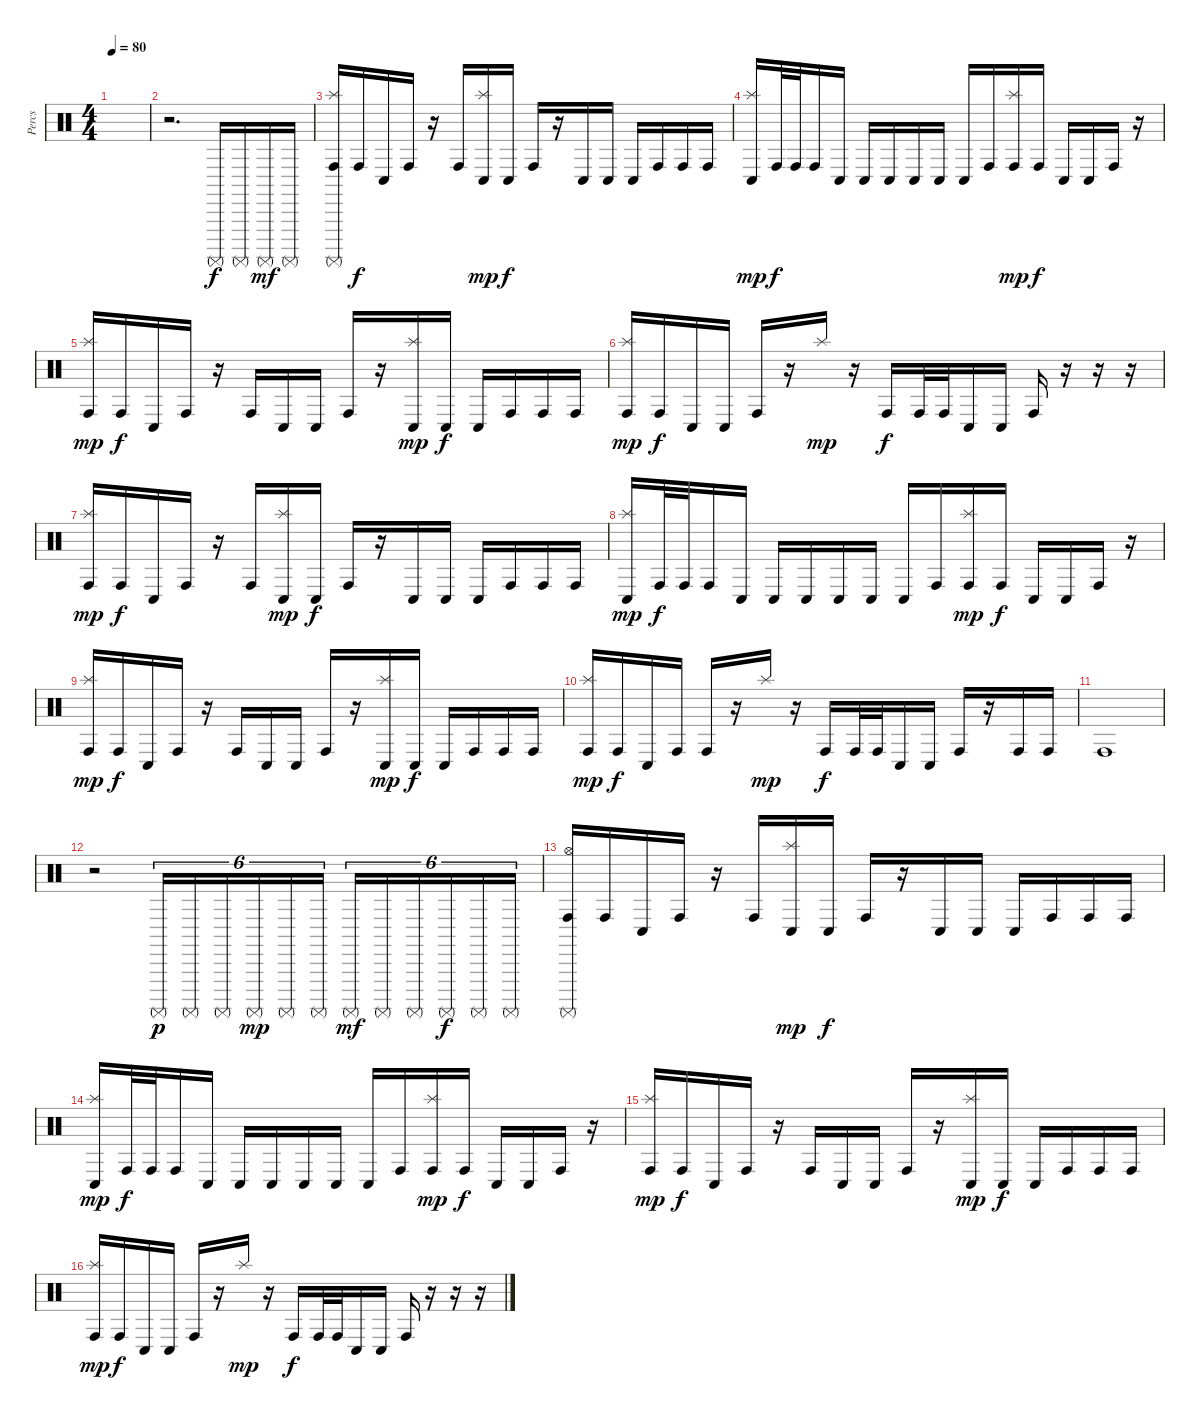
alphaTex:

\track ("Percs" "Percs") {instrument percussion}
\staff {score}
\articulation defaults
\ts (4 4)
\tempo 80
\clef neutral
\ks c
|
r.2{d} "Surdo (mute)".16 "Surdo (mute)".16 "Surdo (mute)".16{dy mf} "Surdo (mute)".16 |
("Splash (hit)" "Conga high (hit)" "Surdo (mute)").16 "Conga high (hit)".16{dy f} "Conga low (hit)".16 "Conga high (hit)".16 r.16 "Conga high (hit)".16 ("Splash (hit)" "Conga low (hit)").16{dy mp} "Conga low (hit)".16{dy f} "Conga high (hit)".16 r.16 "Conga low (hit)".16 "Conga low (hit)".16 "Conga low (hit)".16 "Conga high (hit)".16 "Conga high (hit)".16 "Conga high (hit)".16 |
("Splash (hit)" "Conga low (hit)").16{dy mp} "Conga high (hit)".32{dy f} "Conga high (hit)".32 "Conga high (hit)".16 "Conga low (hit)".16 "Conga low (hit)".16 "Conga low (hit)".16 "Conga low (hit)".16 "Conga low (hit)".16 "Conga low (hit)".16 "Conga high (hit)".16 ("Splash (hit)" "Conga high (hit)").16{dy mp} "Conga high (hit)".16{dy f} "Conga low (hit)".16 "Conga low (hit)".16 "Conga high (hit)".16 r.16 |
("Splash (hit)" "Conga high (hit)").16{dy mp} "Conga high (hit)".16{dy f} "Conga low (hit)".16 "Conga high (hit)".16 r.16 "Conga high (hit)".16 "Conga low (hit)".16 "Conga low (hit)".16 "Conga high (hit)".16 r.16 ("Splash (hit)" "Conga low (hit)").16{dy mp} "Conga low (hit)".16{dy f} "Conga low (hit)".16 "Conga high (hit)".16 "Conga high (hit)".16 "Conga high (hit)".16 |
("Splash (hit)" "Conga high (hit)").16{dy mp} "Conga high (hit)".16{dy f} "Conga low (hit)".16 "Conga low (hit)".16 "Conga high (hit)".16 r.16 "Splash (hit)".16{dy mp} r.16 "Conga high (hit)".16{dy f} "Conga high (hit)".32 "Conga high (hit)".32 "Conga low (hit)".16 "Conga low (hit)".16 "Conga high (hit)".16 r.16 r.16 r.16 |
("Splash (hit)" "Conga high (hit)").16{dy mp} "Conga high (hit)".16{dy f} "Conga low (hit)".16 "Conga high (hit)".16 r.16 "Conga high (hit)".16 ("Splash (hit)" "Conga low (hit)").16{dy mp} "Conga low (hit)".16{dy f} "Conga high (hit)".16 r.16 "Conga low (hit)".16 "Conga low (hit)".16 "Conga low (hit)".16 "Conga high (hit)".16 "Conga high (hit)".16 "Conga high (hit)".16 |
("Splash (hit)" "Conga low (hit)").16{dy mp} "Conga high (hit)".32{dy f} "Conga high (hit)".32 "Conga high (hit)".16 "Conga low (hit)".16 "Conga low (hit)".16 "Conga low (hit)".16 "Conga low (hit)".16 "Conga low (hit)".16 "Conga low (hit)".16 "Conga high (hit)".16 ("Splash (hit)" "Conga high (hit)").16{dy mp} "Conga high (hit)".16{dy f} "Conga low (hit)".16 "Conga low (hit)".16 "Conga high (hit)".16 r.16 |
("Splash (hit)" "Conga high (hit)").16{dy mp} "Conga high (hit)".16{dy f} "Conga low (hit)".16 "Conga high (hit)".16 r.16 "Conga high (hit)".16 "Conga low (hit)".16 "Conga low (hit)".16 "Conga high (hit)".16 r.16 ("Splash (hit)" "Conga low (hit)").16{dy mp} "Conga low (hit)".16{dy f} "Conga low (hit)".16 "Conga high (hit)".16 "Conga high (hit)".16 "Conga high (hit)".16 |
("Splash (hit)" "Conga high (hit)").16{dy mp} "Conga high (hit)".16{dy f} "Conga low (hit)".16 "Conga high (hit)".16 "Conga high (hit)".16 r.16 "Splash (hit)".16{dy mp} r.16 "Conga high (hit)".16{dy f} "Conga high (hit)".32 "Conga high (hit)".32 "Conga low (hit)".16 "Conga low (hit)".16 "Conga high (hit)".16 r.16 "Conga high (hit)".16 "Conga high (hit)".16 |
"Conga high (hit)".1 |
r.2 "Surdo (mute)".16{tu (6 4) dy p} "Surdo (mute)".16{tu (6 4)} "Surdo (mute)".16{tu (6 4)} "Surdo (mute)".16{tu (6 4) dy mp} "Surdo (mute)".16{tu (6 4)} "Surdo (mute)".16{tu (6 4)} "Surdo (mute)".16{tu (6 4) dy mf} "Surdo (mute)".16{tu (6 4)} "Surdo (mute)".16{tu (6 4)} "Surdo (mute)".16{tu (6 4) dy f} "Surdo (mute)".16{tu (6 4)} "Surdo (mute)".16{tu (6 4)} |
("Hi-Hat (open)" "Conga high (hit)" "Surdo (mute)").16 "Conga high (hit)".16 "Conga low (hit)".16 "Conga high (hit)".16 r.16 "Conga high (hit)".16 ("Splash (hit)" "Conga low (hit)").16{dy mp} "Conga low (hit)".16{dy f} "Conga high (hit)".16 r.16 "Conga low (hit)".16 "Conga low (hit)".16 "Conga low (hit)".16 "Conga high (hit)".16 "Conga high (hit)".16 "Conga high (hit)".16 |
("Splash (hit)" "Conga low (hit)").16{dy mp} "Conga high (hit)".32{dy f} "Conga high (hit)".32 "Conga high (hit)".16 "Conga low (hit)".16 "Conga low (hit)".16 "Conga low (hit)".16 "Conga low (hit)".16 "Conga low (hit)".16 "Conga low (hit)".16 "Conga high (hit)".16 ("Splash (hit)" "Conga high (hit)").16{dy mp} "Conga high (hit)".16{dy f} "Conga low (hit)".16 "Conga low (hit)".16 "Conga high (hit)".16 r.16 |
("Splash (hit)" "Conga high (hit)").16{dy mp} "Conga high (hit)".16{dy f} "Conga low (hit)".16 "Conga high (hit)".16 r.16 "Conga high (hit)".16 "Conga low (hit)".16 "Conga low (hit)".16 "Conga high (hit)".16 r.16 ("Splash (hit)" "Conga low (hit)").16{dy mp} "Conga low (hit)".16{dy f} "Conga low (hit)".16 "Conga high (hit)".16 "Conga high (hit)".16 "Conga high (hit)".16 |
("Splash (hit)" "Conga high (hit)").16{dy mp} "Conga high (hit)".16{dy f} "Conga low (hit)".16 "Conga low (hit)".16 "Conga high (hit)".16 r.16 "Splash (hit)".16{dy mp} r.16 "Conga high (hit)".16{dy f} "Conga high (hit)".32 "Conga high (hit)".32 "Conga low (hit)".16 "Conga low (hit)".16 "Conga high (hit)".16 r.16 r.16 r.16
